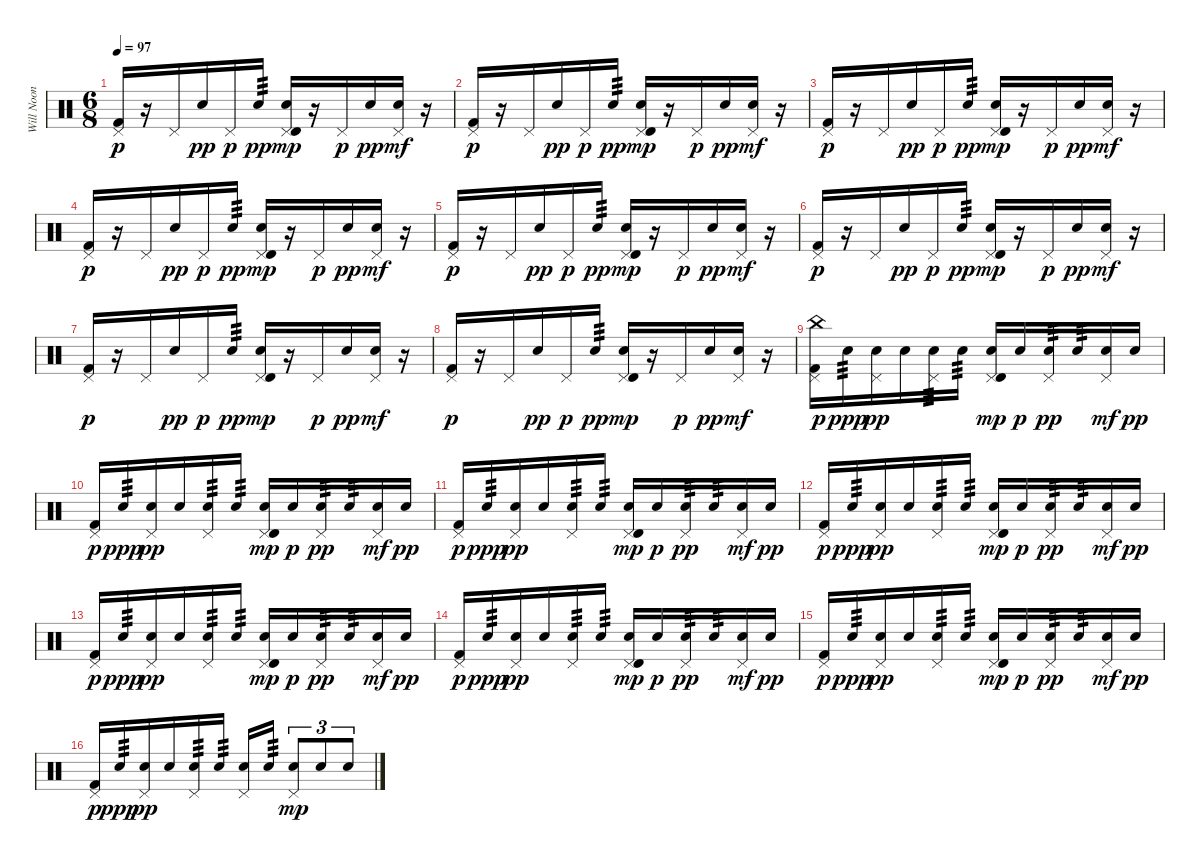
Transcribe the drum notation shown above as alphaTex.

\track ("Will Noon" "Will Noon") {instrument percussion}
\staff {score}
\articulation defaults
\ts (6 8)
\tempo 97
\clef neutral
\ks c
("Pedal Hi-Hat (hit)" "Kick (hit) 2").16{dy p} r.16 "Pedal Hi-Hat (hit)".16 "Electric Snare (hit)".16{dy pp} "Pedal Hi-Hat (hit)".16{dy p} "Electric Snare (hit)".16{tp 3 dy pp} ("Pedal Hi-Hat (hit)" "Timbale high (hit)" "Electric Snare (hit)").16{dy mp} r.16 "Pedal Hi-Hat (hit)".16{dy p} "Snare (hit) 2".16{dy pp} ("Pedal Hi-Hat (hit)" "Electric Snare (hit)").16{dy mf} r.16 |
("Pedal Hi-Hat (hit)" "Kick (hit) 2").16{dy p} r.16 "Pedal Hi-Hat (hit)".16 "Electric Snare (hit)".16{dy pp} "Pedal Hi-Hat (hit)".16{dy p} "Electric Snare (hit)".16{tp 3 dy pp} ("Pedal Hi-Hat (hit)" "Timbale high (hit)" "Electric Snare (hit)").16{dy mp} r.16 "Pedal Hi-Hat (hit)".16{dy p} "Snare (hit) 2".16{dy pp} ("Pedal Hi-Hat (hit)" "Electric Snare (hit)").16{dy mf} r.16 |
("Pedal Hi-Hat (hit)" "Kick (hit) 2").16{dy p} r.16 "Pedal Hi-Hat (hit)".16 "Electric Snare (hit)".16{dy pp} "Pedal Hi-Hat (hit)".16{dy p} "Electric Snare (hit)".16{tp 3 dy pp} ("Pedal Hi-Hat (hit)" "Timbale high (hit)" "Electric Snare (hit)").16{dy mp} r.16 "Pedal Hi-Hat (hit)".16{dy p} "Snare (hit) 2".16{dy pp} ("Pedal Hi-Hat (hit)" "Electric Snare (hit)").16{dy mf} r.16 |
("Pedal Hi-Hat (hit)" "Kick (hit) 2").16{dy p} r.16 "Pedal Hi-Hat (hit)".16 "Electric Snare (hit)".16{dy pp} "Pedal Hi-Hat (hit)".16{dy p} "Electric Snare (hit)".16{tp 3 dy pp} ("Pedal Hi-Hat (hit)" "Timbale high (hit)" "Electric Snare (hit)").16{dy mp} r.16 "Pedal Hi-Hat (hit)".16{dy p} "Snare (hit) 2".16{dy pp} ("Pedal Hi-Hat (hit)" "Electric Snare (hit)").16{dy mf} r.16 |
("Pedal Hi-Hat (hit)" "Kick (hit) 2").16{dy p} r.16 "Pedal Hi-Hat (hit)".16 "Electric Snare (hit)".16{dy pp} "Pedal Hi-Hat (hit)".16{dy p} "Electric Snare (hit)".16{tp 3 dy pp} ("Pedal Hi-Hat (hit)" "Timbale high (hit)" "Electric Snare (hit)").16{dy mp} r.16 "Pedal Hi-Hat (hit)".16{dy p} "Snare (hit) 2".16{dy pp} ("Pedal Hi-Hat (hit)" "Electric Snare (hit)").16{dy mf} r.16 |
("Pedal Hi-Hat (hit)" "Kick (hit) 2").16{dy p} r.16 "Pedal Hi-Hat (hit)".16 "Electric Snare (hit)".16{dy pp} "Pedal Hi-Hat (hit)".16{dy p} "Electric Snare (hit)".16{tp 3 dy pp} ("Pedal Hi-Hat (hit)" "Timbale high (hit)" "Electric Snare (hit)").16{dy mp} r.16 "Pedal Hi-Hat (hit)".16{dy p} "Snare (hit) 2".16{dy pp} ("Pedal Hi-Hat (hit)" "Electric Snare (hit)").16{dy mf} r.16 |
("Pedal Hi-Hat (hit)" "Kick (hit) 2").16{dy p} r.16 "Pedal Hi-Hat (hit)".16 "Electric Snare (hit)".16{dy pp} "Pedal Hi-Hat (hit)".16{dy p} "Electric Snare (hit)".16{tp 3 dy pp} ("Pedal Hi-Hat (hit)" "Timbale high (hit)" "Electric Snare (hit)").16{dy mp} r.16 "Pedal Hi-Hat (hit)".16{dy p} "Snare (hit) 2".16{dy pp} ("Pedal Hi-Hat (hit)" "Electric Snare (hit)").16{dy mf} r.16 |
("Pedal Hi-Hat (hit)" "Kick (hit) 2").16{dy p} r.16 "Pedal Hi-Hat (hit)".16 "Electric Snare (hit)".16{dy pp} "Pedal Hi-Hat (hit)".16{dy p} "Electric Snare (hit)".16{tp 3 dy pp} ("Pedal Hi-Hat (hit)" "Timbale high (hit)" "Electric Snare (hit)").16{dy mp} r.16 "Pedal Hi-Hat (hit)".16{dy p} "Snare (hit) 2".16{dy pp} ("Pedal Hi-Hat (hit)" "Electric Snare (hit)").16{dy mf} r.16 |
("China (hit)" "Pedal Hi-Hat (hit)" "Kick (hit) 2").16{dy p} "Electric Snare (hit)".16{tp 3 dy ppp} ("Pedal Hi-Hat (hit)" "Electric Snare (hit)").16{dy pp} "Electric Snare (hit)".16 ("Pedal Hi-Hat (hit)" "Electric Snare (hit)").16{tp 3} "Electric Snare (hit)".16{tp 3} ("Pedal Hi-Hat (hit)" "Timbale high (hit)" "Electric Snare (hit)").16{dy mp} "Electric Snare (hit)".16{dy p} ("Pedal Hi-Hat (hit)" "Electric Snare (hit)").16{tp 3 dy pp} "Electric Snare (hit)".16{tp 3} ("Pedal Hi-Hat (hit)" "Electric Snare (hit)").16{dy mf} "Electric Snare (hit)".16{dy pp} |
("Pedal Hi-Hat (hit)" "Kick (hit) 2").16{dy p} "Electric Snare (hit)".16{tp 3 dy ppp} ("Pedal Hi-Hat (hit)" "Electric Snare (hit)").16{dy pp} "Electric Snare (hit)".16 ("Pedal Hi-Hat (hit)" "Electric Snare (hit)").16{tp 3} "Electric Snare (hit)".16{tp 3} ("Pedal Hi-Hat (hit)" "Timbale high (hit)" "Electric Snare (hit)").16{dy mp} "Electric Snare (hit)".16{dy p} ("Pedal Hi-Hat (hit)" "Electric Snare (hit)").16{tp 3 dy pp} "Electric Snare (hit)".16{tp 3} ("Pedal Hi-Hat (hit)" "Electric Snare (hit)").16{dy mf} "Electric Snare (hit)".16{dy pp} |
("Pedal Hi-Hat (hit)" "Kick (hit) 2").16{dy p} "Electric Snare (hit)".16{tp 3 dy ppp} ("Pedal Hi-Hat (hit)" "Electric Snare (hit)").16{dy pp} "Electric Snare (hit)".16 ("Pedal Hi-Hat (hit)" "Electric Snare (hit)").16{tp 3} "Electric Snare (hit)".16{tp 3} ("Pedal Hi-Hat (hit)" "Timbale high (hit)" "Electric Snare (hit)").16{dy mp} "Electric Snare (hit)".16{dy p} ("Pedal Hi-Hat (hit)" "Electric Snare (hit)").16{tp 3 dy pp} "Electric Snare (hit)".16{tp 3} ("Pedal Hi-Hat (hit)" "Electric Snare (hit)").16{dy mf} "Electric Snare (hit)".16{dy pp} |
("Pedal Hi-Hat (hit)" "Kick (hit) 2").16{dy p} "Electric Snare (hit)".16{tp 3 dy ppp} ("Pedal Hi-Hat (hit)" "Electric Snare (hit)").16{dy pp} "Electric Snare (hit)".16 ("Pedal Hi-Hat (hit)" "Electric Snare (hit)").16{tp 3} "Electric Snare (hit)".16{tp 3} ("Pedal Hi-Hat (hit)" "Timbale high (hit)" "Electric Snare (hit)").16{dy mp} "Electric Snare (hit)".16{dy p} ("Pedal Hi-Hat (hit)" "Electric Snare (hit)").16{tp 3 dy pp} "Electric Snare (hit)".16{tp 3} ("Pedal Hi-Hat (hit)" "Electric Snare (hit)").16{dy mf} "Electric Snare (hit)".16{dy pp} |
("Pedal Hi-Hat (hit)" "Kick (hit) 2").16{dy p} "Electric Snare (hit)".16{tp 3 dy ppp} ("Pedal Hi-Hat (hit)" "Electric Snare (hit)").16{dy pp} "Electric Snare (hit)".16 ("Pedal Hi-Hat (hit)" "Electric Snare (hit)").16{tp 3} "Electric Snare (hit)".16{tp 3} ("Pedal Hi-Hat (hit)" "Timbale high (hit)" "Electric Snare (hit)").16{dy mp} "Electric Snare (hit)".16{dy p} ("Pedal Hi-Hat (hit)" "Electric Snare (hit)").16{tp 3 dy pp} "Electric Snare (hit)".16{tp 3} ("Pedal Hi-Hat (hit)" "Electric Snare (hit)").16{dy mf} "Electric Snare (hit)".16{dy pp} |
("Pedal Hi-Hat (hit)" "Kick (hit) 2").16{dy p} "Electric Snare (hit)".16{tp 3 dy ppp} ("Pedal Hi-Hat (hit)" "Electric Snare (hit)").16{dy pp} "Electric Snare (hit)".16 ("Pedal Hi-Hat (hit)" "Electric Snare (hit)").16{tp 3} "Electric Snare (hit)".16{tp 3} ("Pedal Hi-Hat (hit)" "Timbale high (hit)" "Electric Snare (hit)").16{dy mp} "Electric Snare (hit)".16{dy p} ("Pedal Hi-Hat (hit)" "Electric Snare (hit)").16{tp 3 dy pp} "Electric Snare (hit)".16{tp 3} ("Pedal Hi-Hat (hit)" "Electric Snare (hit)").16{dy mf} "Electric Snare (hit)".16{dy pp} |
("Pedal Hi-Hat (hit)" "Kick (hit) 2").16{dy p} "Electric Snare (hit)".16{tp 3 dy ppp} ("Pedal Hi-Hat (hit)" "Electric Snare (hit)").16{dy pp} "Electric Snare (hit)".16 ("Pedal Hi-Hat (hit)" "Electric Snare (hit)").16{tp 3} "Electric Snare (hit)".16{tp 3} ("Pedal Hi-Hat (hit)" "Timbale high (hit)" "Electric Snare (hit)").16{dy mp} "Electric Snare (hit)".16{dy p} ("Pedal Hi-Hat (hit)" "Electric Snare (hit)").16{tp 3 dy pp} "Electric Snare (hit)".16{tp 3} ("Pedal Hi-Hat (hit)" "Electric Snare (hit)").16{dy mf} "Electric Snare (hit)".16{dy pp} |
("Pedal Hi-Hat (hit)" "Kick (hit) 2").16{dy p} "Electric Snare (hit)".16{tp 3 dy ppp} ("Pedal Hi-Hat (hit)" "Electric Snare (hit)").16{dy pp} "Electric Snare (hit)".16 ("Pedal Hi-Hat (hit)" "Electric Snare (hit)").16{tp 3} "Electric Snare (hit)".16{tp 3} ("Pedal Hi-Hat (hit)" "Electric Snare (hit)").16 "Electric Snare (hit)".16{tp 3} ("Pedal Hi-Hat (hit)" "Electric Snare (hit)").8{tu (3 2) dy mp} "Electric Snare (hit)".8{tu (3 2)} "Electric Snare (hit)".8{tu (3 2)}
